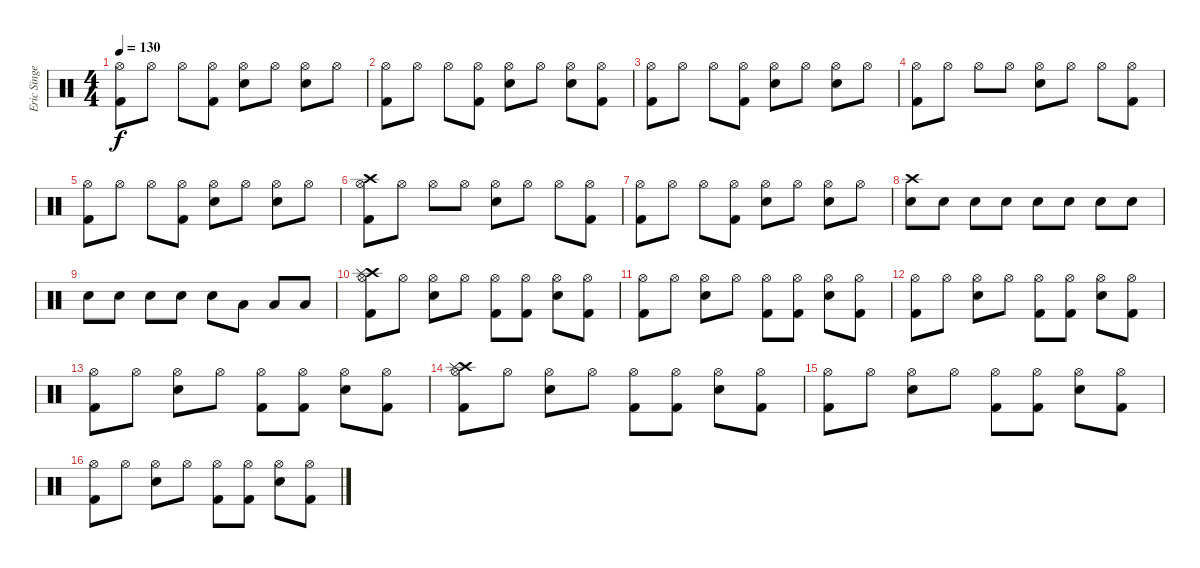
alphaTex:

\track ("Eric Singer" "Eric Singe") {instrument percussion}
\staff {score}
\articulation defaults
\ts (4 4)
\tempo 130
\clef neutral
\ks c
("Kick (hit) 2" "Hi-Hat (open)").8{dy f} "Hi-Hat (open)".8 "Hi-Hat (open)".8 ("Kick (hit) 2" "Hi-Hat (open)").8 ("Electric Snare (hit)" "Hi-Hat (open)").8 "Hi-Hat (open)".8 ("Electric Snare (hit)" "Hi-Hat (open)").8 "Hi-Hat (open)".8 |
("Kick (hit) 2" "Hi-Hat (open)").8 "Hi-Hat (open)".8 "Hi-Hat (open)".8 ("Kick (hit) 2" "Hi-Hat (open)").8 ("Electric Snare (hit)" "Hi-Hat (open)").8 "Hi-Hat (open)".8 ("Electric Snare (hit)" "Hi-Hat (open)").8 ("Kick (hit) 2" "Hi-Hat (open)").8 |
("Kick (hit) 2" "Hi-Hat (open)").8 "Hi-Hat (open)".8 "Hi-Hat (open)".8 ("Kick (hit) 2" "Hi-Hat (open)").8 ("Electric Snare (hit)" "Hi-Hat (open)").8 "Hi-Hat (open)".8 ("Electric Snare (hit)" "Hi-Hat (open)").8 "Hi-Hat (open)".8 |
("Kick (hit) 2" "Hi-Hat (open)").8 "Hi-Hat (open)".8 "Hi-Hat (open)".8 "Hi-Hat (open)".8 ("Electric Snare (hit)" "Hi-Hat (open)").8 "Hi-Hat (open)".8 "Hi-Hat (open)".8 ("Kick (hit) 2" "Hi-Hat (open)").8 |
("Kick (hit) 2" "Hi-Hat (open)").8 "Hi-Hat (open)".8 "Hi-Hat (open)".8 ("Kick (hit) 2" "Hi-Hat (open)").8 ("Electric Snare (hit)" "Hi-Hat (open)").8 "Hi-Hat (open)".8 ("Electric Snare (hit)" "Hi-Hat (open)").8 "Hi-Hat (open)".8 |
("Kick (hit) 2" "Hi-Hat (open)" "Crash high (hit)").8 "Hi-Hat (open)".8 "Hi-Hat (open)".8 "Hi-Hat (open)".8 ("Electric Snare (hit)" "Hi-Hat (open)").8 "Hi-Hat (open)".8 "Hi-Hat (open)".8 ("Kick (hit) 2" "Hi-Hat (open)").8 |
("Kick (hit) 2" "Hi-Hat (open)").8 "Hi-Hat (open)".8 "Hi-Hat (open)".8 ("Kick (hit) 2" "Hi-Hat (open)").8 ("Electric Snare (hit)" "Hi-Hat (open)").8 "Hi-Hat (open)".8 ("Electric Snare (hit)" "Hi-Hat (open)").8 "Hi-Hat (open)".8 |
("Electric Snare (hit)" "Crash high (hit)").8{volume 6} "Electric Snare (hit)".8{volume 8} "Electric Snare (hit)".8{volume 11} "Electric Snare (hit)".8{volume 14} "Electric Snare (hit)".8{volume 16} "Electric Snare (hit)".8 "Electric Snare (hit)".8 "Electric Snare (hit)".8 |
"Electric Snare (hit)".8 "Electric Snare (hit)".8 "Electric Snare (hit)".8 "Electric Snare (hit)".8 "Electric Snare (hit)".8 "Low Floor Tom (hit)".8 "Low Floor Tom (hit)".8 "Low Floor Tom (hit)".8 |
("Kick (hit) 2" "Hi-Hat (open)" "Crash high (hit)" "Splash (hit)").8 "Hi-Hat (open)".8 ("Electric Snare (hit)" "Hi-Hat (open)").8 "Hi-Hat (open)".8 ("Kick (hit) 2" "Hi-Hat (open)").8 ("Kick (hit) 2" "Hi-Hat (open)").8 ("Electric Snare (hit)" "Hi-Hat (open)").8 ("Kick (hit) 2" "Hi-Hat (open)").8 |
("Kick (hit) 2" "Hi-Hat (open)").8 "Hi-Hat (open)".8 ("Electric Snare (hit)" "Hi-Hat (open)").8 "Hi-Hat (open)".8 ("Kick (hit) 2" "Hi-Hat (open)").8 ("Kick (hit) 2" "Hi-Hat (open)").8 ("Electric Snare (hit)" "Hi-Hat (open)").8 ("Kick (hit) 2" "Hi-Hat (open)").8 |
("Kick (hit) 2" "Hi-Hat (open)").8 "Hi-Hat (open)".8 ("Electric Snare (hit)" "Hi-Hat (open)").8 "Hi-Hat (open)".8 ("Kick (hit) 2" "Hi-Hat (open)").8 ("Kick (hit) 2" "Hi-Hat (open)").8 ("Electric Snare (hit)" "Hi-Hat (open)").8 ("Kick (hit) 2" "Hi-Hat (open)").8 |
("Kick (hit) 2" "Hi-Hat (open)").8 "Hi-Hat (open)".8 ("Electric Snare (hit)" "Hi-Hat (open)").8 "Hi-Hat (open)".8 ("Kick (hit) 2" "Hi-Hat (open)").8 ("Kick (hit) 2" "Hi-Hat (open)").8 ("Electric Snare (hit)" "Hi-Hat (open)").8 ("Kick (hit) 2" "Hi-Hat (open)").8 |
("Kick (hit) 2" "Hi-Hat (open)" "Crash high (hit)" "Splash (hit)").8 "Hi-Hat (open)".8 ("Electric Snare (hit)" "Hi-Hat (open)").8 "Hi-Hat (open)".8 ("Kick (hit) 2" "Hi-Hat (open)").8 ("Kick (hit) 2" "Hi-Hat (open)").8 ("Electric Snare (hit)" "Hi-Hat (open)").8 ("Kick (hit) 2" "Hi-Hat (open)").8 |
("Kick (hit) 2" "Hi-Hat (open)").8 "Hi-Hat (open)".8 ("Electric Snare (hit)" "Hi-Hat (open)").8 "Hi-Hat (open)".8 ("Kick (hit) 2" "Hi-Hat (open)").8 ("Kick (hit) 2" "Hi-Hat (open)").8 ("Electric Snare (hit)" "Hi-Hat (open)").8 ("Kick (hit) 2" "Hi-Hat (open)").8 |
("Kick (hit) 2" "Hi-Hat (open)").8 "Hi-Hat (open)".8 ("Electric Snare (hit)" "Hi-Hat (open)").8 "Hi-Hat (open)".8 ("Kick (hit) 2" "Hi-Hat (open)").8 ("Kick (hit) 2" "Hi-Hat (open)").8 ("Electric Snare (hit)" "Hi-Hat (open)").8 ("Kick (hit) 2" "Hi-Hat (open)").8
